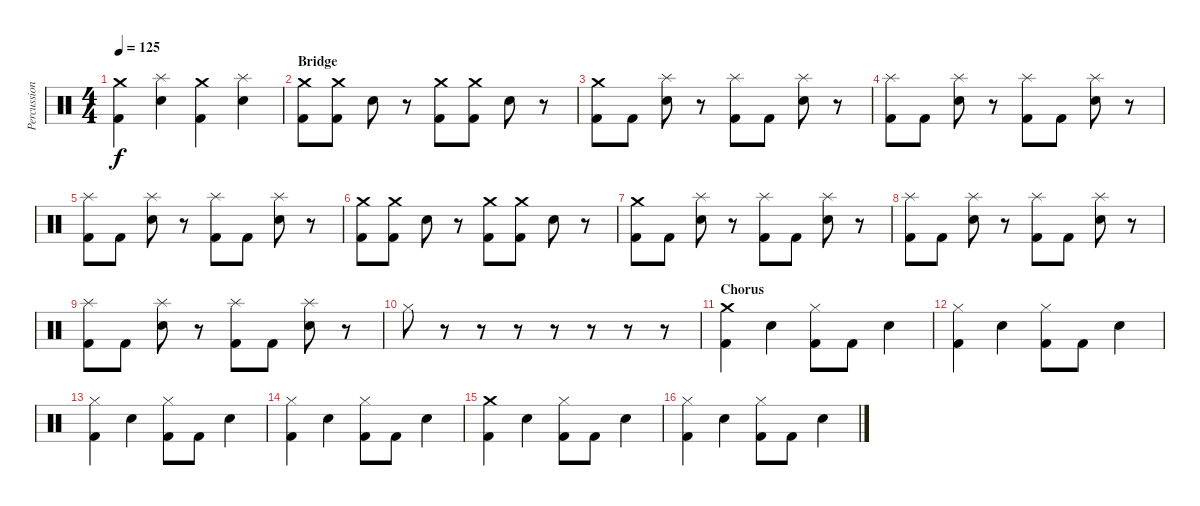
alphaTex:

\track ("Percussion" "Percussion") {instrument percussion}
\staff {score}
\articulation defaults
\ts (4 4)
\tempo 125
\clef neutral
\ks c
("Crash medium (hit)" "Kick (hit) 2").4{dy f} ("Splash (hit)" "Snare (hit) 2").4 ("Crash medium (hit)" "Kick (hit) 2").4 ("Splash (hit)" "Snare (hit) 2").4 |
\section ("" "Bridge")
("Crash medium (hit)" "Kick (hit) 2").8 ("Crash medium (hit)" "Kick (hit) 2").8 "Snare (hit) 2".8 r.8 ("Crash medium (hit)" "Kick (hit) 2").8 ("Crash medium (hit)" "Kick (hit) 2").8 "Snare (hit) 2".8 r.8 |
("Crash medium (hit)" "Kick (hit) 2").8 "Kick (hit) 2".8 ("Splash (hit)" "Snare (hit) 2").8 r.8 ("Splash (hit)" "Kick (hit) 2").8 "Kick (hit) 2".8 ("Splash (hit)" "Snare (hit) 2").8 r.8 |
("Splash (hit)" "Kick (hit) 2").8 "Kick (hit) 2".8 ("Splash (hit)" "Snare (hit) 2").8 r.8 ("Splash (hit)" "Kick (hit) 2").8 "Kick (hit) 2".8 ("Splash (hit)" "Snare (hit) 2").8 r.8 |
("Splash (hit)" "Kick (hit) 2").8 "Kick (hit) 2".8 ("Splash (hit)" "Snare (hit) 2").8 r.8 ("Splash (hit)" "Kick (hit) 2").8 "Kick (hit) 2".8 ("Splash (hit)" "Snare (hit) 2").8 r.8 |
("Crash medium (hit)" "Kick (hit) 2").8 ("Crash medium (hit)" "Kick (hit) 2").8 "Snare (hit) 2".8 r.8 ("Crash medium (hit)" "Kick (hit) 2").8 ("Crash medium (hit)" "Kick (hit) 2").8 "Snare (hit) 2".8 r.8 |
("Crash medium (hit)" "Kick (hit) 2").8 "Kick (hit) 2".8 ("Splash (hit)" "Snare (hit) 2").8 r.8 ("Splash (hit)" "Kick (hit) 2").8 "Kick (hit) 2".8 ("Splash (hit)" "Snare (hit) 2").8 r.8 |
("Splash (hit)" "Kick (hit) 2").8 "Kick (hit) 2".8 ("Splash (hit)" "Snare (hit) 2").8 r.8 ("Splash (hit)" "Kick (hit) 2").8 "Kick (hit) 2".8 ("Splash (hit)" "Snare (hit) 2").8 r.8 |
("Splash (hit)" "Kick (hit) 2").8 "Kick (hit) 2".8 ("Splash (hit)" "Snare (hit) 2").8 r.8 ("Splash (hit)" "Kick (hit) 2").8 "Kick (hit) 2".8 ("Splash (hit)" "Snare (hit) 2").8 r.8 |
"Hi-Hat (closed)".8 r.8 r.8 r.8 r.8 r.8 r.8 r.8 |
\section ("" "Chorus")
("Crash medium (hit)" "Kick (hit) 2").4 "Snare (hit) 2".4 ("Hi-Hat (closed)" "Kick (hit) 2").8 "Kick (hit) 2".8 "Snare (hit) 2".4 |
("Hi-Hat (closed)" "Kick (hit) 2").4 "Snare (hit) 2".4 ("Hi-Hat (closed)" "Kick (hit) 2").8 "Kick (hit) 2".8 "Snare (hit) 2".4 |
("Hi-Hat (closed)" "Kick (hit) 2").4 "Snare (hit) 2".4 ("Hi-Hat (closed)" "Kick (hit) 2").8 "Kick (hit) 2".8 "Snare (hit) 2".4 |
("Hi-Hat (closed)" "Kick (hit) 2").4 "Snare (hit) 2".4 ("Hi-Hat (closed)" "Kick (hit) 2").8 "Kick (hit) 2".8 "Snare (hit) 2".4 |
("Crash medium (hit)" "Kick (hit) 2").4 "Snare (hit) 2".4 ("Hi-Hat (closed)" "Kick (hit) 2").8 "Kick (hit) 2".8 "Snare (hit) 2".4 |
("Hi-Hat (closed)" "Kick (hit) 2").4 "Snare (hit) 2".4 ("Hi-Hat (closed)" "Kick (hit) 2").8 "Kick (hit) 2".8 "Snare (hit) 2".4
